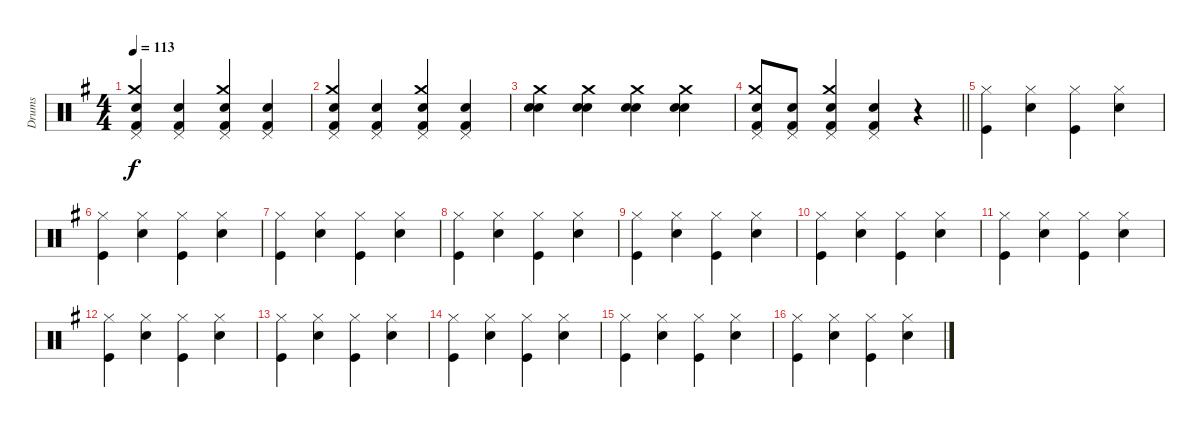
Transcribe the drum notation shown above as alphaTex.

\track ("Drums" "Drums") {instrument percussion}
\staff {score}
\articulation defaults
\ts (4 4)
\tempo 113
\clef neutral
\ks g
("Kick (hit) 2" "Snare (hit) 2" "Crash medium (hit)" "Pedal Hi-Hat (hit)").4{dy f} ("Snare (hit) 2" "Kick (hit) 2" "Pedal Hi-Hat (hit)").4 ("Snare (hit) 2" "Kick (hit) 2" "Crash medium (hit)" "Pedal Hi-Hat (hit)").4 ("Snare (hit) 2" "Kick (hit) 2" "Pedal Hi-Hat (hit)").4 |
("Kick (hit) 2" "Snare (hit) 2" "Crash medium (hit)" "Pedal Hi-Hat (hit)").4 ("Snare (hit) 2" "Kick (hit) 2" "Pedal Hi-Hat (hit)").4 ("Snare (hit) 2" "Kick (hit) 2" "Crash medium (hit)" "Pedal Hi-Hat (hit)").4 ("Snare (hit) 2" "Kick (hit) 2" "Pedal Hi-Hat (hit)").4 |
("Snare (hit) 2" "Snare (hit) 2" "Crash medium (hit)").4 ("Crash medium (hit)" "Snare (hit) 2" "Snare (hit) 2").4 ("Crash medium (hit)" "Snare (hit) 2" "Snare (hit) 2").4 ("Snare (hit) 2" "Snare (hit) 2" "Crash medium (hit)").4 |
\barLineRight lightlight
("Kick (hit) 2" "Snare (hit) 2" "Crash medium (hit)" "Pedal Hi-Hat (hit)").8 ("Snare (hit) 2" "Kick (hit) 2" "Pedal Hi-Hat (hit)").8 ("Snare (hit) 2" "Kick (hit) 2" "Crash medium (hit)" "Pedal Hi-Hat (hit)").4 ("Snare (hit) 2" "Kick (hit) 2" "Pedal Hi-Hat (hit)").4 r.4 |
("Kick (hit)" "Hi-Hat (closed)").4 ("Snare (hit) 2" "Hi-Hat (closed)").4 ("Kick (hit)" "Hi-Hat (closed)").4 ("Snare (hit) 2" "Hi-Hat (closed)").4 |
("Kick (hit)" "Hi-Hat (closed)").4 ("Snare (hit) 2" "Hi-Hat (closed)").4 ("Kick (hit)" "Hi-Hat (closed)").4 ("Snare (hit) 2" "Hi-Hat (closed)").4 |
("Kick (hit)" "Hi-Hat (closed)").4 ("Snare (hit) 2" "Hi-Hat (closed)").4 ("Kick (hit)" "Hi-Hat (closed)").4 ("Snare (hit) 2" "Hi-Hat (closed)").4 |
("Kick (hit)" "Hi-Hat (closed)").4 ("Snare (hit) 2" "Hi-Hat (closed)").4 ("Kick (hit)" "Hi-Hat (closed)").4 ("Snare (hit) 2" "Hi-Hat (closed)").4 |
("Kick (hit)" "Hi-Hat (closed)").4 ("Snare (hit) 2" "Hi-Hat (closed)").4 ("Kick (hit)" "Hi-Hat (closed)").4 ("Snare (hit) 2" "Hi-Hat (closed)").4 |
("Kick (hit)" "Hi-Hat (closed)").4 ("Snare (hit) 2" "Hi-Hat (closed)").4 ("Kick (hit)" "Hi-Hat (closed)").4 ("Snare (hit) 2" "Hi-Hat (closed)").4 |
("Kick (hit)" "Hi-Hat (closed)").4 ("Snare (hit) 2" "Hi-Hat (closed)").4 ("Kick (hit)" "Hi-Hat (closed)").4 ("Snare (hit) 2" "Hi-Hat (closed)").4 |
("Kick (hit)" "Hi-Hat (closed)").4 ("Snare (hit) 2" "Hi-Hat (closed)").4 ("Kick (hit)" "Hi-Hat (closed)").4 ("Snare (hit) 2" "Hi-Hat (closed)").4 |
("Kick (hit)" "Hi-Hat (closed)").4 ("Snare (hit) 2" "Hi-Hat (closed)").4 ("Kick (hit)" "Hi-Hat (closed)").4 ("Snare (hit) 2" "Hi-Hat (closed)").4 |
("Kick (hit)" "Hi-Hat (closed)").4 ("Snare (hit) 2" "Hi-Hat (closed)").4 ("Kick (hit)" "Hi-Hat (closed)").4 ("Snare (hit) 2" "Hi-Hat (closed)").4 |
("Kick (hit)" "Hi-Hat (closed)").4 ("Snare (hit) 2" "Hi-Hat (closed)").4 ("Kick (hit)" "Hi-Hat (closed)").4 ("Snare (hit) 2" "Hi-Hat (closed)").4 |
("Kick (hit)" "Hi-Hat (closed)").4 ("Snare (hit) 2" "Hi-Hat (closed)").4 ("Kick (hit)" "Hi-Hat (closed)").4 ("Snare (hit) 2" "Hi-Hat (closed)").4
